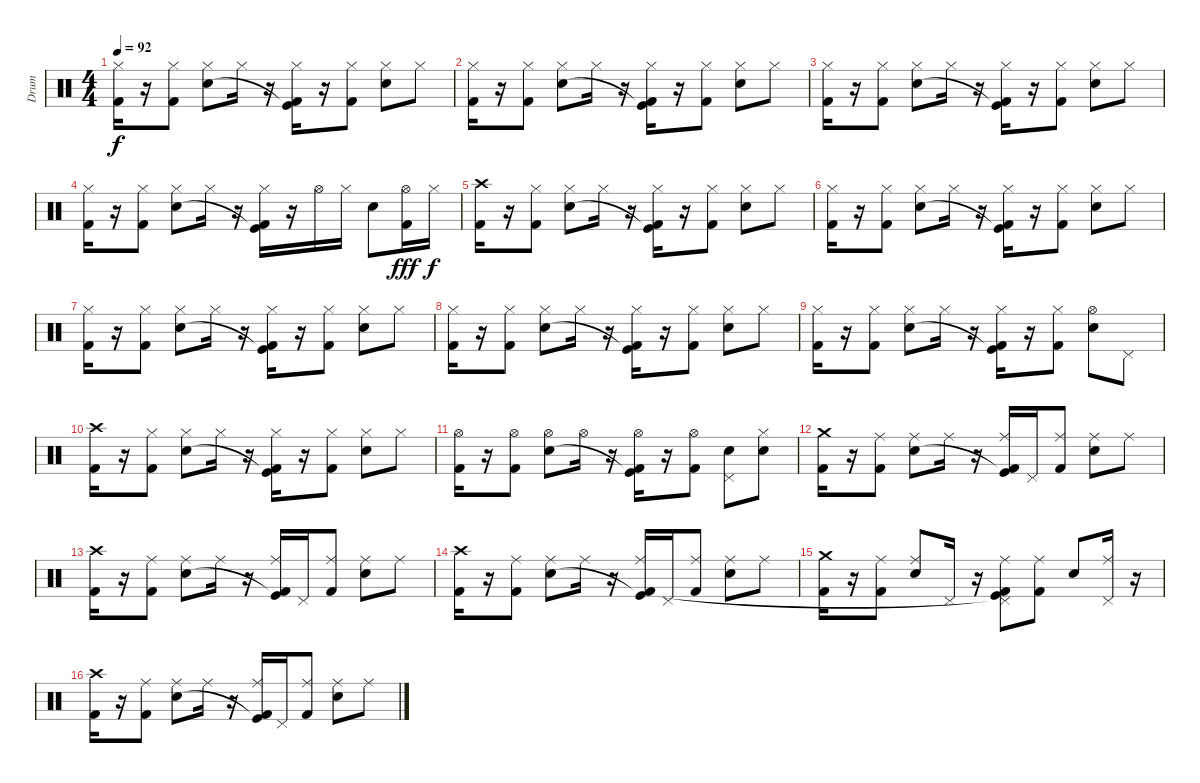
\track ("Drum" "Drum") {instrument percussion}
\staff {score}
\articulation defaults
\ts (4 4)
\tempo 92
\clef neutral
\ks c
("Hi-Hat (closed)" "Kick (hit) 2").16{dy f} r.16 ("Hi-Hat (closed)" "Kick (hit) 2").8 ("Hi-Hat (closed)" "Snare (hit) 2").8 "Hi-Hat (closed)".16 r.16 ("Hi-Hat (closed)" "Kick (hit)"{t} "Kick (hit) 2").16 r.16 ("Hi-Hat (closed)" "Kick (hit) 2").8 ("Hi-Hat (closed)" "Snare (hit) 2").8 "Hi-Hat (closed)".8 |
("Hi-Hat (closed)" "Kick (hit) 2").16 r.16 ("Hi-Hat (closed)" "Kick (hit) 2").8 ("Hi-Hat (closed)" "Snare (hit) 2").8 "Hi-Hat (closed)".16 r.16 ("Hi-Hat (closed)" "Kick (hit)"{t} "Kick (hit) 2").16 r.16 ("Hi-Hat (closed)" "Kick (hit) 2").8 ("Hi-Hat (closed)" "Snare (hit) 2").8 "Hi-Hat (closed)".8 |
("Hi-Hat (closed)" "Kick (hit) 2").16 r.16 ("Hi-Hat (closed)" "Kick (hit) 2").8 ("Hi-Hat (closed)" "Snare (hit) 2").8 "Hi-Hat (closed)".16 r.16 ("Hi-Hat (closed)" "Kick (hit)"{t} "Kick (hit) 2").16 r.16 ("Hi-Hat (closed)" "Kick (hit) 2").8 ("Hi-Hat (closed)" "Snare (hit) 2").8 "Hi-Hat (closed)".8 |
("Hi-Hat (closed)" "Kick (hit) 2").16 r.16 ("Hi-Hat (closed)" "Kick (hit) 2").8 ("Hi-Hat (closed)" "Snare (hit) 2").8 "Hi-Hat (closed)".16 r.16 ("Hi-Hat (closed)" "Kick (hit)"{t} "Kick (hit) 2").16 r.16 "Hi-Hat (open)".16 "Hi-Hat (closed)".16 "Snare (hit) 2".8 ("Hi-Hat (open)" "Kick (hit) 2").16{dy fff} "Hi-Hat (closed)".16{dy f} |
("Crash high (hit)" "Kick (hit) 2").16 r.16 ("Hi-Hat (closed)" "Kick (hit) 2").8 ("Hi-Hat (closed)" "Snare (hit) 2").8 "Hi-Hat (closed)".16 r.16 ("Hi-Hat (closed)" "Kick (hit)"{t} "Kick (hit) 2").16 r.16 ("Hi-Hat (closed)" "Kick (hit) 2").8 ("Hi-Hat (closed)" "Snare (hit) 2").8 "Hi-Hat (closed)".8 |
("Hi-Hat (closed)" "Kick (hit) 2").16 r.16 ("Hi-Hat (closed)" "Kick (hit) 2").8 ("Hi-Hat (closed)" "Snare (hit) 2").8 "Hi-Hat (closed)".16 r.16 ("Hi-Hat (closed)" "Kick (hit)"{t} "Kick (hit) 2").16 r.16 ("Hi-Hat (closed)" "Kick (hit) 2").8 ("Hi-Hat (closed)" "Snare (hit) 2").8 "Hi-Hat (closed)".8 |
("Hi-Hat (closed)" "Kick (hit) 2").16 r.16 ("Hi-Hat (closed)" "Kick (hit) 2").8 ("Hi-Hat (closed)" "Snare (hit) 2").8 "Hi-Hat (closed)".16 r.16 ("Hi-Hat (closed)" "Kick (hit)"{t} "Kick (hit) 2").16 r.16 ("Hi-Hat (closed)" "Kick (hit) 2").8 ("Hi-Hat (closed)" "Snare (hit) 2").8 "Hi-Hat (closed)".8 |
("Hi-Hat (closed)" "Kick (hit) 2").16 r.16 ("Hi-Hat (closed)" "Kick (hit) 2").8 ("Hi-Hat (closed)" "Snare (hit) 2").8 "Hi-Hat (closed)".16 r.16 ("Hi-Hat (closed)" "Kick (hit)"{t} "Kick (hit) 2").16 r.16 ("Hi-Hat (closed)" "Kick (hit) 2").8 ("Hi-Hat (closed)" "Snare (hit) 2").8 "Hi-Hat (closed)".8 |
("Hi-Hat (closed)" "Kick (hit) 2").16 r.16 ("Hi-Hat (closed)" "Kick (hit) 2").8 ("Hi-Hat (closed)" "Snare (hit) 2").8 "Hi-Hat (closed)".16 r.16 ("Hi-Hat (closed)" "Kick (hit)"{t} "Kick (hit) 2").16 r.16 ("Hi-Hat (closed)" "Kick (hit) 2").8 ("Hi-Hat (open)" "Snare (hit) 2").8 "Pedal Hi-Hat (hit)".8 |
("Crash high (hit)" "Kick (hit) 2").16 r.16 ("Hi-Hat (closed)" "Kick (hit) 2").8 ("Hi-Hat (closed)" "Snare (hit) 2").8 "Hi-Hat (closed)".16 r.16 ("Hi-Hat (closed)" "Kick (hit)"{t} "Kick (hit) 2").16 r.16 ("Hi-Hat (closed)" "Kick (hit) 2").8 ("Hi-Hat (closed)" "Snare (hit) 2").8 "Hi-Hat (closed)".8 |
("Hi-Hat (open)" "Kick (hit) 2").16 r.16 ("Hi-Hat (open)" "Kick (hit) 2").8 ("Hi-Hat (open)" "Snare (hit) 2").8 "Hi-Hat (open)".16 r.16 ("Hi-Hat (open)" "Kick (hit)"{t} "Kick (hit) 2").16 r.16 ("Hi-Hat (open)" "Kick (hit) 2").8 ("Pedal Hi-Hat (hit)" "Snare (hit) 2").8 ("Hi-Hat (closed)" "Snare (hit) 2").8 |
("Crash medium (hit)" "Kick (hit) 2").16 r.16 ("Ride (middle)" "Kick (hit) 2").8 ("Ride (middle)" "Snare (hit) 2").8 "Ride (middle)".16 r.16 ("Ride (middle)" "Kick (hit)"{t} "Kick (hit) 2").16 "Pedal Hi-Hat (hit)".16 ("Ride (middle)" "Kick (hit) 2").8 ("Ride (middle)" "Snare (hit) 2").8 "Ride (middle)".8 |
("Crash high (hit)" "Kick (hit) 2").16 r.16 ("Ride (middle)" "Kick (hit) 2").8 ("Ride (middle)" "Snare (hit) 2").8 "Ride (middle)".16 r.16 ("Ride (middle)" "Kick (hit)"{t} "Kick (hit) 2").16 "Pedal Hi-Hat (hit)".16 ("Ride (middle)" "Kick (hit) 2").8 ("Ride (middle)" "Snare (hit) 2").8 "Ride (middle)".8 |
("Crash high (hit)" "Kick (hit) 2").16 r.16 ("Ride (middle)" "Kick (hit) 2").8 ("Ride (middle)" "Snare (hit) 2").8 "Ride (middle)".16 r.16 ("Ride (middle)" "Kick (hit)"{t} "Kick (hit) 2").16 "Pedal Hi-Hat (hit)".16 ("Ride (middle)" "Kick (hit) 2").8 ("Ride (middle)" "Snare (hit) 2").8 "Ride (middle)".8 |
("Crash medium (hit)" "Kick (hit) 2").16 r.16 ("Ride (middle)" "Kick (hit) 2").8 ("Ride (middle)" "Snare (hit) 2").8 "Pedal Hi-Hat (hit)".16 r.16 ("Ride (middle)" "Pedal Hi-Hat (hit)" "Kick (hit)"{t} "Kick (hit) 2").8 ("Ride (middle)" "Kick (hit) 2").8 "Snare (hit) 2".8 ("Ride (middle)" "Pedal Hi-Hat (hit)").16 r.16 |
("Crash high (hit)" "Kick (hit) 2").16 r.16 ("Ride (middle)" "Kick (hit) 2").8 ("Ride (middle)" "Snare (hit) 2").8 "Ride (middle)".16 r.16 ("Ride (middle)" "Kick (hit)"{t} "Kick (hit) 2").16 "Pedal Hi-Hat (hit)".16 ("Ride (middle)" "Kick (hit) 2").8 ("Ride (middle)" "Snare (hit) 2").8 "Ride (middle)".8
